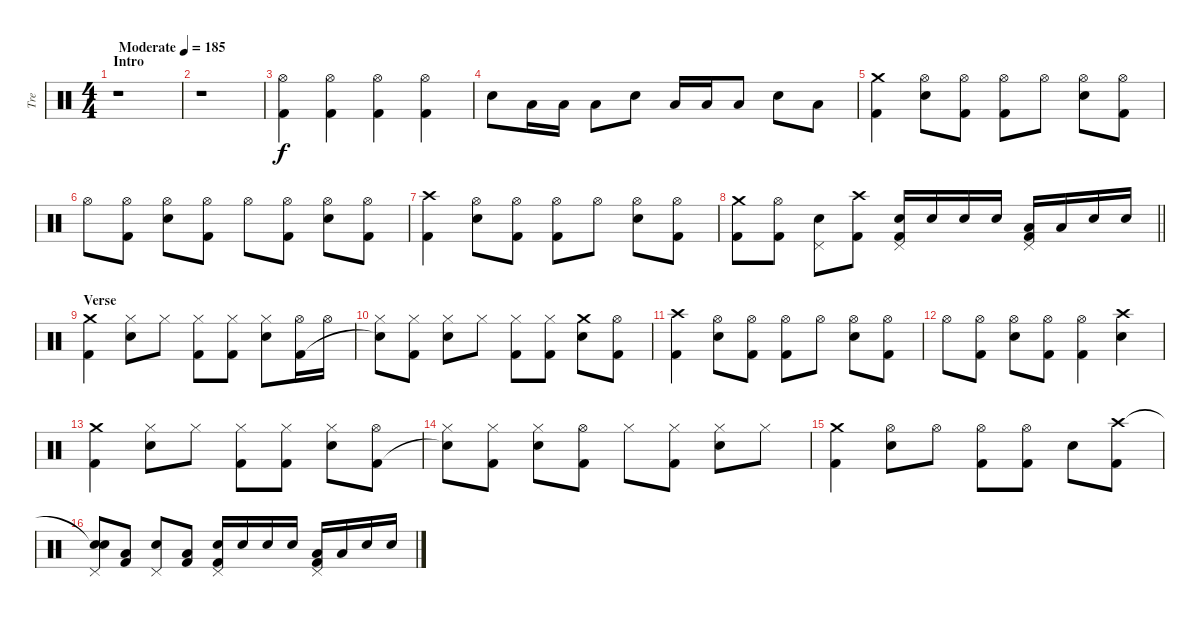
\track ("Tre" "Tre") {instrument percussion}
\staff {score}
\articulation defaults
\ts (4 4)
\section ("" "Intro")
\tempo (185 "Moderate")
\clef neutral
\ks c
r.1{dy f} |
r.1 |
("Hi-Hat (open)" "Kick (hit) 2").4 ("Hi-Hat (open)" "Kick (hit) 2").4 ("Hi-Hat (open)" "Kick (hit) 2").4 ("Hi-Hat (open)" "Kick (hit) 2").4 |
"Snare (hit) 2".8 "Low Floor Tom (hit)".16 "Low Floor Tom (hit)".16 "Low Floor Tom (hit)".8 "Snare (hit) 2".8 "Low Floor Tom (hit)".16 "Low Floor Tom (hit)".16 "Low Floor Tom (hit)".8 "Snare (hit) 2".8 "Low Floor Tom (hit)".8 |
("Crash medium (hit)" "Kick (hit) 2").4 ("Hi-Hat (open)" "Snare (hit) 2").8 ("Hi-Hat (open)" "Kick (hit) 2").8 ("Hi-Hat (open)" "Kick (hit) 2").8 "Hi-Hat (open)".8 ("Hi-Hat (open)" "Snare (hit) 2").8 ("Hi-Hat (open)" "Kick (hit) 2").8 |
"Hi-Hat (open)".8 ("Hi-Hat (open)" "Kick (hit) 2").8 ("Hi-Hat (open)" "Snare (hit) 2").8 ("Hi-Hat (open)" "Kick (hit) 2").8 "Hi-Hat (open)".8 ("Hi-Hat (open)" "Kick (hit) 2").8 ("Hi-Hat (open)" "Snare (hit) 2").8 ("Hi-Hat (open)" "Kick (hit) 2").8 |
("Crash high (hit)" "Kick (hit) 2").4 ("Hi-Hat (open)" "Snare (hit) 2").8 ("Hi-Hat (open)" "Kick (hit) 2").8 ("Hi-Hat (open)" "Kick (hit) 2").8 "Hi-Hat (open)".8 ("Hi-Hat (open)" "Snare (hit) 2").8 ("Hi-Hat (open)" "Kick (hit) 2").8 |
\barLineRight lightlight
("Crash medium (hit)" "Kick (hit) 2").8 ("Hi-Hat (open)" "Kick (hit) 2").8 ("Snare (hit) 2" "Pedal Hi-Hat (hit)").8 ("Crash high (hit)" "Kick (hit) 2").8 ("Snare (hit) 2" "Pedal Hi-Hat (hit)" "Kick (hit) 2").16 "Snare (hit) 2".16 "Snare (hit) 2".16 "Snare (hit) 2".16 ("Low Tom (hit)" "Pedal Hi-Hat (hit)" "Kick (hit) 2").16 "Low Tom (hit)".16 "Snare (hit) 2".16 "Snare (hit) 2".16 |
\section ("" "Verse")
("Crash medium (hit)" "Kick (hit) 2").4 ("Hi-Hat (closed)" "Snare (hit) 2").8 "Hi-Hat (closed)".8 ("Hi-Hat (closed)" "Kick (hit) 2").8 ("Hi-Hat (closed)" "Kick (hit) 2").8 ("Hi-Hat (closed)" "Snare (hit) 2").8 ("Hi-Hat (open)" "Kick (hit) 2").16 "Hi-Hat (open)".16 |
("Hi-Hat (closed)" "Snare (hit)"{t}).8 ("Hi-Hat (closed)" "Kick (hit) 2").8 ("Hi-Hat (closed)" "Snare (hit) 2").8 "Hi-Hat (closed)".8 ("Hi-Hat (closed)" "Kick (hit) 2").8 ("Hi-Hat (closed)" "Kick (hit) 2").8 ("Crash medium (hit)" "Snare (hit) 2").8 ("Hi-Hat (open)" "Kick (hit) 2").8 |
("Crash high (hit)" "Kick (hit) 2").4 ("Hi-Hat (open)" "Snare (hit) 2").8 ("Hi-Hat (open)" "Kick (hit) 2").8 ("Hi-Hat (open)" "Kick (hit) 2").8 "Hi-Hat (open)".8 ("Hi-Hat (open)" "Snare (hit) 2").8 ("Hi-Hat (open)" "Kick (hit) 2").8 |
"Hi-Hat (open)".8 ("Hi-Hat (open)" "Kick (hit) 2").8 ("Hi-Hat (open)" "Snare (hit) 2").8 ("Hi-Hat (open)" "Kick (hit) 2").8 ("Hi-Hat (open)" "Kick (hit) 2").4 ("Crash high (hit)" "Snare (hit) 2").4 |
("Crash medium (hit)" "Kick (hit) 2").4 ("Hi-Hat (closed)" "Snare (hit) 2").8 "Hi-Hat (closed)".8 ("Hi-Hat (closed)" "Kick (hit) 2").8 ("Hi-Hat (closed)" "Kick (hit) 2").8 ("Hi-Hat (closed)" "Snare (hit) 2").8 ("Hi-Hat (open)" "Kick (hit) 2").8 |
("Hi-Hat (closed)" "Snare (hit)"{t}).8 ("Hi-Hat (closed)" "Kick (hit) 2").8 ("Hi-Hat (closed)" "Snare (hit) 2").8 ("Hi-Hat (open)" "Kick (hit) 2").8 "Hi-Hat (closed)".8 ("Hi-Hat (closed)" "Kick (hit) 2").8 ("Hi-Hat (closed)" "Snare (hit) 2").8 "Hi-Hat (closed)".8 |
("Crash medium (hit)" "Kick (hit) 2").4 ("Hi-Hat (open)" "Snare (hit) 2").8 "Hi-Hat (open)".8 ("Hi-Hat (open)" "Kick (hit) 2").8 ("Hi-Hat (open)" "Kick (hit) 2").8 "Snare (hit) 2".8 ("Crash high (hit)" "Kick (hit) 2").8 |
("Snare (hit)"{t} "Pedal Hi-Hat (hit)" "Snare (hit)").8 ("Low Tom (hit)" "Kick (hit) 2").8 ("Snare (hit) 2" "Pedal Hi-Hat (hit)").8 ("Low Tom (hit)" "Kick (hit) 2").8 ("Snare (hit) 2" "Pedal Hi-Hat (hit)" "Kick (hit) 2").16 "Snare (hit) 2".16 "Snare (hit) 2".16 "Snare (hit) 2".16 ("Low Tom (hit)" "Pedal Hi-Hat (hit)" "Kick (hit) 2").16 "Low Tom (hit)".16 "Snare (hit) 2".16 "Snare (hit) 2".16
